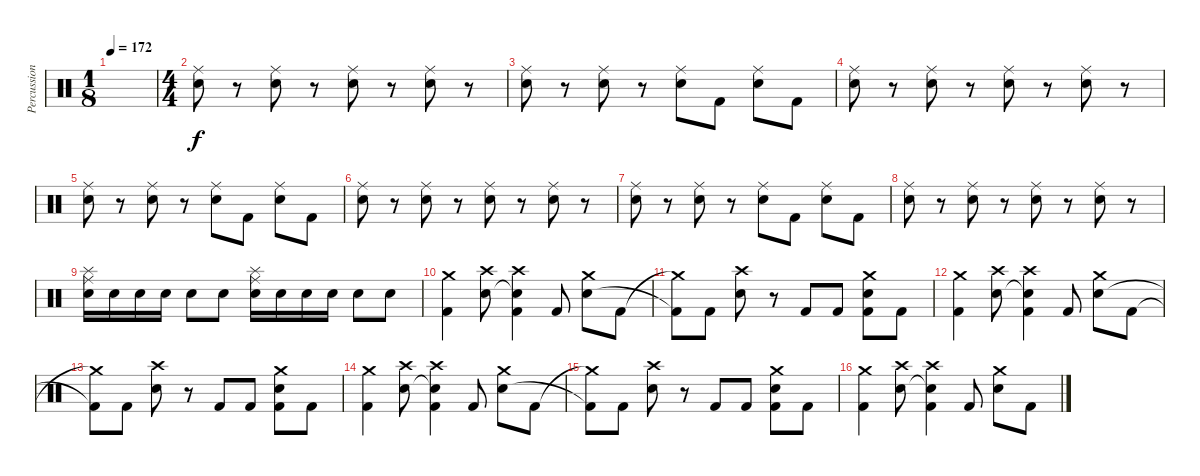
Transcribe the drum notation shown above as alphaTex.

\track ("Percussion" "Percussion") {instrument percussion}
\staff {score}
\articulation defaults
\ts (1 8)
\tempo 172
\clef neutral
\ks c
|
\ts (4 4)
("Ride (middle)" "Electric Snare (hit)").8 r.8 ("Ride (middle)" "Electric Snare (hit)").8 r.8 ("Ride (middle)" "Electric Snare (hit)").8 r.8 ("Ride (middle)" "Electric Snare (hit)").8 r.8 |
("Ride (middle)" "Electric Snare (hit)").8 r.8 ("Ride (middle)" "Electric Snare (hit)").8 r.8 ("Ride (middle)" "Electric Snare (hit)").8 "Kick (hit) 2".8 ("Ride (middle)" "Electric Snare (hit)").8 "Kick (hit) 2".8 |
("Ride (middle)" "Electric Snare (hit)").8 r.8 ("Ride (middle)" "Electric Snare (hit)").8 r.8 ("Ride (middle)" "Electric Snare (hit)").8 r.8 ("Ride (middle)" "Electric Snare (hit)").8 r.8 |
("Ride (middle)" "Electric Snare (hit)").8 r.8 ("Ride (middle)" "Electric Snare (hit)").8 r.8 ("Ride (middle)" "Electric Snare (hit)").8 "Kick (hit) 2".8 ("Ride (middle)" "Electric Snare (hit)").8 "Kick (hit) 2".8 |
("Ride (middle)" "Electric Snare (hit)").8 r.8 ("Ride (middle)" "Electric Snare (hit)").8 r.8 ("Ride (middle)" "Electric Snare (hit)").8 r.8 ("Ride (middle)" "Electric Snare (hit)").8 r.8 |
("Ride (middle)" "Electric Snare (hit)").8 r.8 ("Ride (middle)" "Electric Snare (hit)").8 r.8 ("Ride (middle)" "Electric Snare (hit)").8 "Kick (hit) 2".8 ("Ride (middle)" "Electric Snare (hit)").8 "Kick (hit) 2".8 |
("Ride (middle)" "Electric Snare (hit)").8 r.8 ("Ride (middle)" "Electric Snare (hit)").8 r.8 ("Ride (middle)" "Electric Snare (hit)").8 r.8 ("Ride (middle)" "Electric Snare (hit)").8 r.8 |
("Splash (hit)" "Ride (middle)" "Electric Snare (hit)").16 "Electric Snare (hit)".16 "Electric Snare (hit)".16 "Electric Snare (hit)".16 "Electric Snare (hit)".8 "Electric Snare (hit)".8 ("Splash (hit)" "Ride (middle)" "Electric Snare (hit)").16 "Electric Snare (hit)".16 "Electric Snare (hit)".16 "Electric Snare (hit)".16 "Electric Snare (hit)".8 "Electric Snare (hit)".8 |
("Crash medium (hit)" "Kick (hit) 2").4 ("Crash high (hit)" "Electric Snare (hit)").8 ("Crash high (hit)" "Electric Snare (hit)"{t} "Kick (hit) 2").4 "Kick (hit) 2".8 ("Crash medium (hit)" "Electric Snare (hit)").8 "Kick (hit) 2".8 |
("Crash medium (hit)"{t} "Kick (hit) 2"{t}).8 "Kick (hit) 2".8 ("Crash high (hit)" "Electric Snare (hit)").8 r.8 "Kick (hit) 2".8 "Kick (hit) 2".8 ("Crash medium (hit)" "Electric Snare (hit)" "Kick (hit) 2").8 "Kick (hit) 2".8 |
("Crash medium (hit)" "Kick (hit) 2").4 ("Crash high (hit)" "Electric Snare (hit)").8 ("Crash high (hit)" "Electric Snare (hit)"{t} "Kick (hit) 2").4 "Kick (hit) 2".8 ("Crash medium (hit)" "Electric Snare (hit)").8 "Kick (hit) 2".8 |
("Crash medium (hit)"{t} "Kick (hit) 2"{t}).8 "Kick (hit) 2".8 ("Crash high (hit)" "Electric Snare (hit)").8 r.8 "Kick (hit) 2".8 "Kick (hit) 2".8 ("Crash medium (hit)" "Electric Snare (hit)" "Kick (hit) 2").8 "Kick (hit) 2".8 |
("Crash medium (hit)" "Kick (hit) 2").4 ("Crash high (hit)" "Electric Snare (hit)").8 ("Crash high (hit)" "Electric Snare (hit)"{t} "Kick (hit) 2").4 "Kick (hit) 2".8 ("Crash medium (hit)" "Electric Snare (hit)").8 "Kick (hit) 2".8 |
("Crash medium (hit)"{t} "Kick (hit) 2"{t}).8 "Kick (hit) 2".8 ("Crash high (hit)" "Electric Snare (hit)").8 r.8 "Kick (hit) 2".8 "Kick (hit) 2".8 ("Crash medium (hit)" "Electric Snare (hit)" "Kick (hit) 2").8 "Kick (hit) 2".8 |
("Crash medium (hit)" "Kick (hit) 2").4 ("Crash high (hit)" "Electric Snare (hit)").8 ("Crash high (hit)" "Electric Snare (hit)"{t} "Kick (hit) 2").4 "Kick (hit) 2".8 ("Crash medium (hit)" "Electric Snare (hit)").8 "Kick (hit) 2".8
